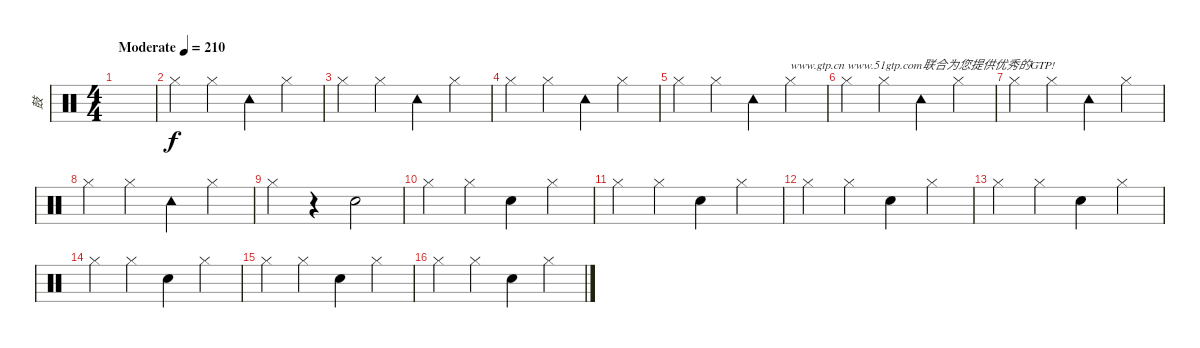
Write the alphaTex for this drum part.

\track ("鼓" "鼓") {instrument percussion}
\staff {score}
\articulation defaults
\ts (4 4)
\tempo (210 "Moderate")
\clef neutral
\ks c
|
"Hi-Hat (closed)".4 "Hi-Hat (closed)".4 "Tambourine (hit)".4 "Hi-Hat (closed)".4 |
"Hi-Hat (closed)".4 "Hi-Hat (closed)".4 "Tambourine (hit)".4 "Hi-Hat (closed)".4 |
"Hi-Hat (closed)".4 "Hi-Hat (closed)".4 "Tambourine (hit)".4 "Hi-Hat (closed)".4 |
"Hi-Hat (closed)".4 "Hi-Hat (closed)".4 "Tambourine (hit)".4 "Hi-Hat (closed)".4{txt "www.gtp.cn www.51gtp.com联合为您提供优秀的GTP!"} |
"Hi-Hat (closed)".4 "Hi-Hat (closed)".4 "Tambourine (hit)".4 "Hi-Hat (closed)".4 |
"Hi-Hat (closed)".4 "Hi-Hat (closed)".4 "Tambourine (hit)".4 "Hi-Hat (closed)".4 |
"Hi-Hat (closed)".4 "Hi-Hat (closed)".4 "Tambourine (hit)".4 "Hi-Hat (closed)".4 |
"Hi-Hat (closed)".4 r.4 "Electric Snare (hit)".2 |
"Hi-Hat (closed)".4 "Hi-Hat (closed)".4 "Electric Snare (hit)".4 "Hi-Hat (closed)".4 |
"Hi-Hat (closed)".4 "Hi-Hat (closed)".4 "Electric Snare (hit)".4 "Hi-Hat (closed)".4 |
"Hi-Hat (closed)".4 "Hi-Hat (closed)".4 "Electric Snare (hit)".4 "Hi-Hat (closed)".4 |
"Hi-Hat (closed)".4 "Hi-Hat (closed)".4 "Electric Snare (hit)".4 "Hi-Hat (closed)".4 |
"Hi-Hat (closed)".4 "Hi-Hat (closed)".4 "Electric Snare (hit)".4 "Hi-Hat (closed)".4 |
"Hi-Hat (closed)".4 "Hi-Hat (closed)".4 "Electric Snare (hit)".4 "Hi-Hat (closed)".4 |
"Hi-Hat (closed)".4 "Hi-Hat (closed)".4 "Electric Snare (hit)".4 "Hi-Hat (closed)".4
